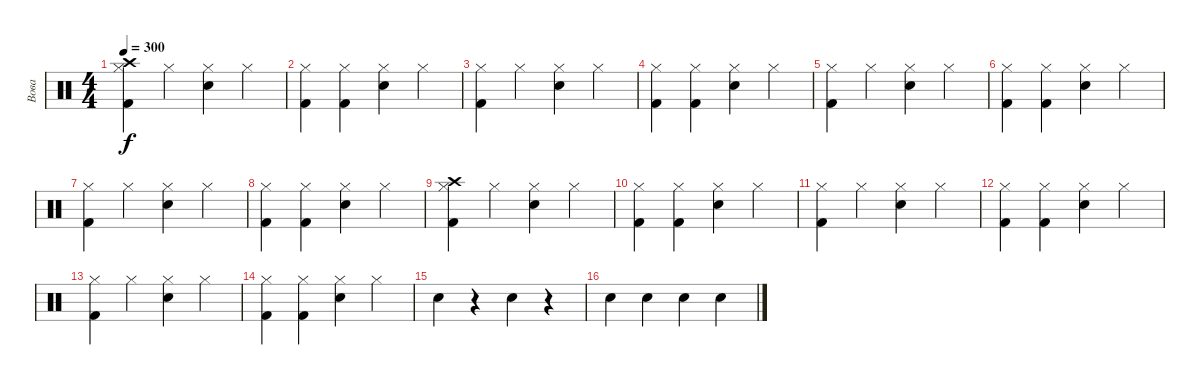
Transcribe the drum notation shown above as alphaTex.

\track ("Вова" "Вова") {instrument percussion}
\staff {score}
\articulation defaults
\ts (4 4)
\tempo 300
\clef neutral
\ks c
("Hi-Hat (closed)" "Crash high (hit)" "Kick (hit) 2").4{dy f} "Hi-Hat (closed)".4 ("Hi-Hat (closed)" "Snare (hit) 2").4 "Hi-Hat (closed)".4 |
("Hi-Hat (closed)" "Kick (hit) 2").4 ("Hi-Hat (closed)" "Kick (hit) 2").4 ("Hi-Hat (closed)" "Snare (hit) 2").4 "Hi-Hat (closed)".4 |
("Hi-Hat (closed)" "Kick (hit) 2").4 "Hi-Hat (closed)".4 ("Hi-Hat (closed)" "Snare (hit) 2").4 "Hi-Hat (closed)".4 |
("Hi-Hat (closed)" "Kick (hit) 2").4 ("Hi-Hat (closed)" "Kick (hit) 2").4 ("Hi-Hat (closed)" "Snare (hit) 2").4 "Hi-Hat (closed)".4 |
("Hi-Hat (closed)" "Kick (hit) 2").4 "Hi-Hat (closed)".4 ("Hi-Hat (closed)" "Snare (hit) 2").4 "Hi-Hat (closed)".4 |
("Hi-Hat (closed)" "Kick (hit) 2").4 ("Hi-Hat (closed)" "Kick (hit) 2").4 ("Hi-Hat (closed)" "Snare (hit) 2").4 "Hi-Hat (closed)".4 |
("Hi-Hat (closed)" "Kick (hit) 2").4 "Hi-Hat (closed)".4 ("Hi-Hat (closed)" "Snare (hit) 2").4 "Hi-Hat (closed)".4 |
("Hi-Hat (closed)" "Kick (hit) 2").4 ("Hi-Hat (closed)" "Kick (hit) 2").4 ("Hi-Hat (closed)" "Snare (hit) 2").4 "Hi-Hat (closed)".4 |
("Hi-Hat (closed)" "Crash high (hit)" "Kick (hit) 2").4 "Hi-Hat (closed)".4 ("Hi-Hat (closed)" "Snare (hit) 2").4 "Hi-Hat (closed)".4 |
("Hi-Hat (closed)" "Kick (hit) 2").4 ("Hi-Hat (closed)" "Kick (hit) 2").4 ("Hi-Hat (closed)" "Snare (hit) 2").4 "Hi-Hat (closed)".4 |
("Hi-Hat (closed)" "Kick (hit) 2").4 "Hi-Hat (closed)".4 ("Hi-Hat (closed)" "Snare (hit) 2").4 "Hi-Hat (closed)".4 |
("Hi-Hat (closed)" "Kick (hit) 2").4 ("Hi-Hat (closed)" "Kick (hit) 2").4 ("Hi-Hat (closed)" "Snare (hit) 2").4 "Hi-Hat (closed)".4 |
("Hi-Hat (closed)" "Kick (hit) 2").4 "Hi-Hat (closed)".4 ("Hi-Hat (closed)" "Snare (hit) 2").4 "Hi-Hat (closed)".4 |
("Hi-Hat (closed)" "Kick (hit) 2").4 ("Hi-Hat (closed)" "Kick (hit) 2").4 ("Hi-Hat (closed)" "Snare (hit) 2").4 "Hi-Hat (closed)".4 |
"Snare (hit) 2".4 r.4 "Snare (hit) 2".4 r.4 |
"Snare (hit) 2".4 "Snare (hit) 2".4 "Snare (hit) 2".4 "Snare (hit) 2".4
